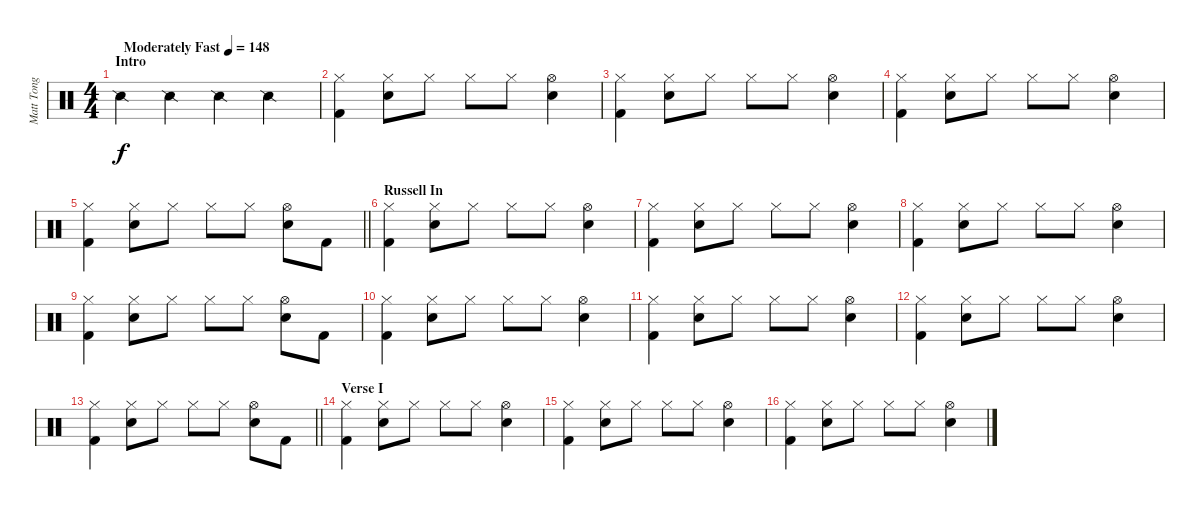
\track ("Matt Tong" "Matt Tong") {instrument percussion}
\staff {score}
\articulation defaults
\ts (4 4)
\section ("" "Intro")
\tempo (148 "Moderately Fast")
\clef neutral
\ks c "Snare (side stick) 2".4{dy f} "Snare (side stick) 2".4 "Snare (side stick) 2".4 "Snare (side stick) 2".4
|
("Hi-Hat (closed)" "Kick (hit) 2").4 ("Hi-Hat (closed)" "Electric Snare (hit)").8 "Hi-Hat (closed)".8 "Hi-Hat (closed)".8 "Hi-Hat (closed)".8 ("Hi-Hat (open)" "Electric Snare (hit)").4 |
("Hi-Hat (closed)" "Kick (hit) 2").4 ("Hi-Hat (closed)" "Electric Snare (hit)").8 "Hi-Hat (closed)".8 "Hi-Hat (closed)".8 "Hi-Hat (closed)".8 ("Hi-Hat (open)" "Electric Snare (hit)").4 |
("Hi-Hat (closed)" "Kick (hit) 2").4 ("Hi-Hat (closed)" "Electric Snare (hit)").8 "Hi-Hat (closed)".8 "Hi-Hat (closed)".8 "Hi-Hat (closed)".8 ("Hi-Hat (open)" "Electric Snare (hit)").4 |
\barLineRight lightlight
("Hi-Hat (closed)" "Kick (hit) 2").4 ("Hi-Hat (closed)" "Electric Snare (hit)").8 "Hi-Hat (closed)".8 "Hi-Hat (closed)".8 "Hi-Hat (closed)".8 ("Hi-Hat (open)" "Electric Snare (hit)").8 "Kick (hit) 2".8 |
\section ("" "Russell In")
("Hi-Hat (closed)" "Kick (hit) 2").4 ("Hi-Hat (closed)" "Electric Snare (hit)").8 "Hi-Hat (closed)".8 "Hi-Hat (closed)".8 "Hi-Hat (closed)".8 ("Hi-Hat (open)" "Electric Snare (hit)").4 |
("Hi-Hat (closed)" "Kick (hit) 2").4 ("Hi-Hat (closed)" "Electric Snare (hit)").8 "Hi-Hat (closed)".8 "Hi-Hat (closed)".8 "Hi-Hat (closed)".8 ("Hi-Hat (open)" "Electric Snare (hit)").4 |
("Hi-Hat (closed)" "Kick (hit) 2").4 ("Hi-Hat (closed)" "Electric Snare (hit)").8 "Hi-Hat (closed)".8 "Hi-Hat (closed)".8 "Hi-Hat (closed)".8 ("Hi-Hat (open)" "Electric Snare (hit)").4 |
("Hi-Hat (closed)" "Kick (hit) 2").4 ("Hi-Hat (closed)" "Electric Snare (hit)").8 "Hi-Hat (closed)".8 "Hi-Hat (closed)".8 "Hi-Hat (closed)".8 ("Hi-Hat (open)" "Electric Snare (hit)").8 "Kick (hit) 2".8 |
("Hi-Hat (closed)" "Kick (hit) 2").4 ("Hi-Hat (closed)" "Electric Snare (hit)").8 "Hi-Hat (closed)".8 "Hi-Hat (closed)".8 "Hi-Hat (closed)".8 ("Hi-Hat (open)" "Electric Snare (hit)").4 |
("Hi-Hat (closed)" "Kick (hit) 2").4 ("Hi-Hat (closed)" "Electric Snare (hit)").8 "Hi-Hat (closed)".8 "Hi-Hat (closed)".8 "Hi-Hat (closed)".8 ("Hi-Hat (open)" "Electric Snare (hit)").4 |
("Hi-Hat (closed)" "Kick (hit) 2").4 ("Hi-Hat (closed)" "Electric Snare (hit)").8 "Hi-Hat (closed)".8 "Hi-Hat (closed)".8 "Hi-Hat (closed)".8 ("Hi-Hat (open)" "Electric Snare (hit)").4 |
\barLineRight lightlight
("Hi-Hat (closed)" "Kick (hit) 2").4 ("Hi-Hat (closed)" "Electric Snare (hit)").8 "Hi-Hat (closed)".8 "Hi-Hat (closed)".8 "Hi-Hat (closed)".8 ("Hi-Hat (open)" "Electric Snare (hit)").8 "Kick (hit) 2".8 |
\section ("" "Verse I")
("Hi-Hat (closed)" "Kick (hit) 2").4 ("Hi-Hat (closed)" "Electric Snare (hit)").8 "Hi-Hat (closed)".8 "Hi-Hat (closed)".8 "Hi-Hat (closed)".8 ("Hi-Hat (open)" "Electric Snare (hit)").4 |
("Hi-Hat (closed)" "Kick (hit) 2").4 ("Hi-Hat (closed)" "Electric Snare (hit)").8 "Hi-Hat (closed)".8 "Hi-Hat (closed)".8 "Hi-Hat (closed)".8 ("Hi-Hat (open)" "Electric Snare (hit)").4 |
("Hi-Hat (closed)" "Kick (hit) 2").4 ("Hi-Hat (closed)" "Electric Snare (hit)").8 "Hi-Hat (closed)".8 "Hi-Hat (closed)".8 "Hi-Hat (closed)".8 ("Hi-Hat (open)" "Electric Snare (hit)").4
